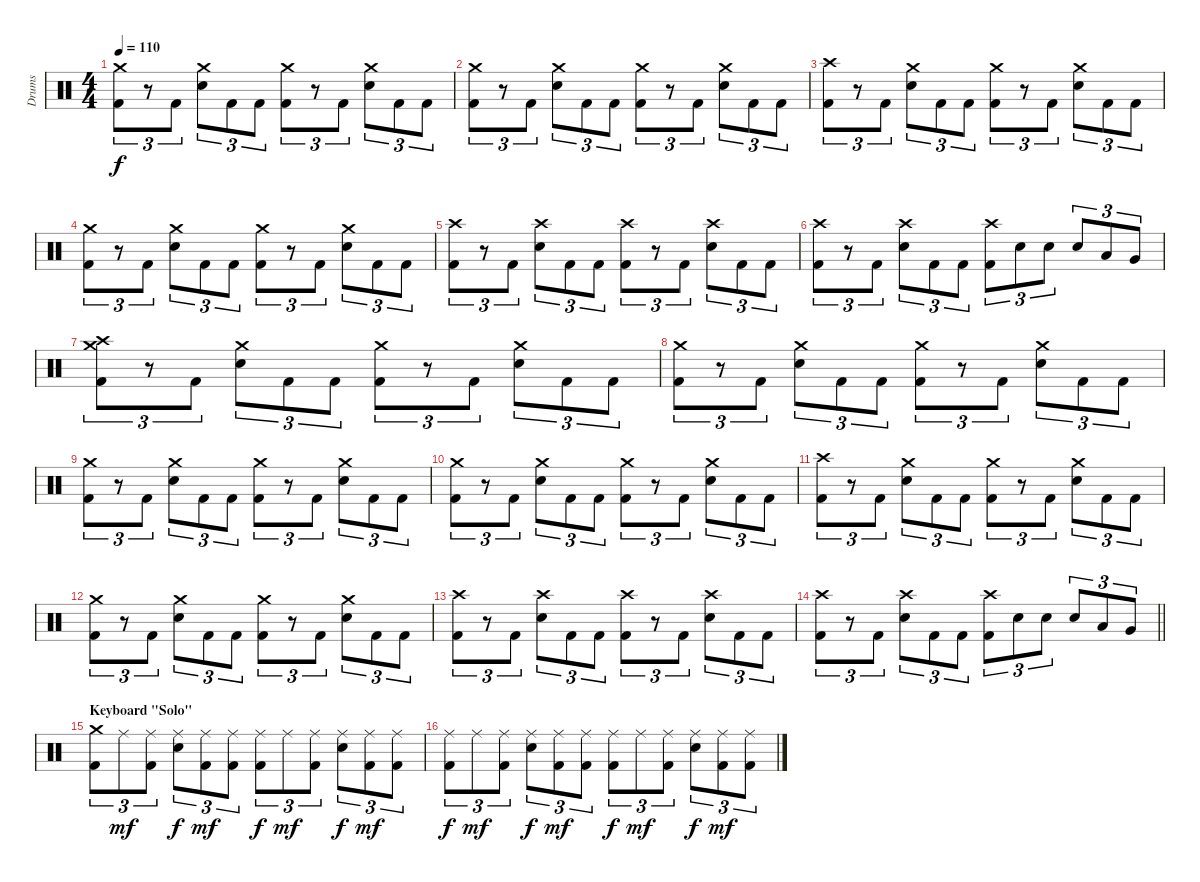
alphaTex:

\track ("Drums" "Drums") {instrument percussion}
\staff {score}
\articulation defaults
\ts (4 4)
\tempo 110
\clef neutral
\ks c
("Crash medium (hit)" "Kick (hit) 2").8{tu (3 2) dy f} r.8{tu (3 2)} "Kick (hit) 2".8{tu (3 2)} ("Crash medium (hit)" "Electric Snare (hit)").8{tu (3 2)} "Kick (hit) 2".8{tu (3 2)} "Kick (hit) 2".8{tu (3 2)} ("Crash medium (hit)" "Kick (hit) 2").8{tu (3 2)} r.8{tu (3 2)} "Kick (hit) 2".8{tu (3 2)} ("Crash medium (hit)" "Electric Snare (hit)").8{tu (3 2)} "Kick (hit) 2".8{tu (3 2)} "Kick (hit) 2".8{tu (3 2)} |
("Crash medium (hit)" "Kick (hit) 2").8{tu (3 2)} r.8{tu (3 2)} "Kick (hit) 2".8{tu (3 2)} ("Crash medium (hit)" "Electric Snare (hit)").8{tu (3 2)} "Kick (hit) 2".8{tu (3 2)} "Kick (hit) 2".8{tu (3 2)} ("Crash medium (hit)" "Kick (hit) 2").8{tu (3 2)} r.8{tu (3 2)} "Kick (hit) 2".8{tu (3 2)} ("Crash medium (hit)" "Electric Snare (hit)").8{tu (3 2)} "Kick (hit) 2".8{tu (3 2)} "Kick (hit) 2".8{tu (3 2)} |
("Crash high (hit)" "Kick (hit) 2").8{tu (3 2)} r.8{tu (3 2)} "Kick (hit) 2".8{tu (3 2)} ("Crash medium (hit)" "Electric Snare (hit)").8{tu (3 2)} "Kick (hit) 2".8{tu (3 2)} "Kick (hit) 2".8{tu (3 2)} ("Crash medium (hit)" "Kick (hit) 2").8{tu (3 2)} r.8{tu (3 2)} "Kick (hit) 2".8{tu (3 2)} ("Crash medium (hit)" "Electric Snare (hit)").8{tu (3 2)} "Kick (hit) 2".8{tu (3 2)} "Kick (hit) 2".8{tu (3 2)} |
("Crash medium (hit)" "Kick (hit) 2").8{tu (3 2)} r.8{tu (3 2)} "Kick (hit) 2".8{tu (3 2)} ("Crash medium (hit)" "Electric Snare (hit)").8{tu (3 2)} "Kick (hit) 2".8{tu (3 2)} "Kick (hit) 2".8{tu (3 2)} ("Crash medium (hit)" "Kick (hit) 2").8{tu (3 2)} r.8{tu (3 2)} "Kick (hit) 2".8{tu (3 2)} ("Crash medium (hit)" "Electric Snare (hit)").8{tu (3 2)} "Kick (hit) 2".8{tu (3 2)} "Kick (hit) 2".8{tu (3 2)} |
("Crash high (hit)" "Kick (hit) 2").8{tu (3 2)} r.8{tu (3 2)} "Kick (hit) 2".8{tu (3 2)} ("Crash high (hit)" "Electric Snare (hit)").8{tu (3 2)} "Kick (hit) 2".8{tu (3 2)} "Kick (hit) 2".8{tu (3 2)} ("Crash high (hit)" "Kick (hit) 2").8{tu (3 2)} r.8{tu (3 2)} "Kick (hit) 2".8{tu (3 2)} ("Crash high (hit)" "Electric Snare (hit)").8{tu (3 2)} "Kick (hit) 2".8{tu (3 2)} "Kick (hit) 2".8{tu (3 2)} |
("Crash high (hit)" "Kick (hit) 2").8{tu (3 2)} r.8{tu (3 2)} "Kick (hit) 2".8{tu (3 2)} ("Crash high (hit)" "Electric Snare (hit)").8{tu (3 2)} "Kick (hit) 2".8{tu (3 2)} "Kick (hit) 2".8{tu (3 2)} ("Crash high (hit)" "Kick (hit) 2").8{tu (3 2)} "Electric Snare (hit)".8{tu (3 2)} "Electric Snare (hit)".8{tu (3 2)} "Electric Snare (hit)".8{tu (3 2)} "Low Tom (hit)".8{tu (3 2)} "Very Low Tom (hit)".8{tu (3 2)} |
("Crash medium (hit)" "Crash high (hit)" "Kick (hit) 2").8{tu (3 2)} r.8{tu (3 2)} "Kick (hit) 2".8{tu (3 2)} ("Crash medium (hit)" "Electric Snare (hit)").8{tu (3 2)} "Kick (hit) 2".8{tu (3 2)} "Kick (hit) 2".8{tu (3 2)} ("Crash medium (hit)" "Kick (hit) 2").8{tu (3 2)} r.8{tu (3 2)} "Kick (hit) 2".8{tu (3 2)} ("Crash medium (hit)" "Electric Snare (hit)").8{tu (3 2)} "Kick (hit) 2".8{tu (3 2)} "Kick (hit) 2".8{tu (3 2)} |
("Crash medium (hit)" "Kick (hit) 2").8{tu (3 2)} r.8{tu (3 2)} "Kick (hit) 2".8{tu (3 2)} ("Crash medium (hit)" "Electric Snare (hit)").8{tu (3 2)} "Kick (hit) 2".8{tu (3 2)} "Kick (hit) 2".8{tu (3 2)} ("Crash medium (hit)" "Kick (hit) 2").8{tu (3 2)} r.8{tu (3 2)} "Kick (hit) 2".8{tu (3 2)} ("Crash medium (hit)" "Electric Snare (hit)").8{tu (3 2)} "Kick (hit) 2".8{tu (3 2)} "Kick (hit) 2".8{tu (3 2)} |
("Crash medium (hit)" "Kick (hit) 2").8{tu (3 2)} r.8{tu (3 2)} "Kick (hit) 2".8{tu (3 2)} ("Crash medium (hit)" "Electric Snare (hit)").8{tu (3 2)} "Kick (hit) 2".8{tu (3 2)} "Kick (hit) 2".8{tu (3 2)} ("Crash medium (hit)" "Kick (hit) 2").8{tu (3 2)} r.8{tu (3 2)} "Kick (hit) 2".8{tu (3 2)} ("Crash medium (hit)" "Electric Snare (hit)").8{tu (3 2)} "Kick (hit) 2".8{tu (3 2)} "Kick (hit) 2".8{tu (3 2)} |
("Crash medium (hit)" "Kick (hit) 2").8{tu (3 2)} r.8{tu (3 2)} "Kick (hit) 2".8{tu (3 2)} ("Crash medium (hit)" "Electric Snare (hit)").8{tu (3 2)} "Kick (hit) 2".8{tu (3 2)} "Kick (hit) 2".8{tu (3 2)} ("Crash medium (hit)" "Kick (hit) 2").8{tu (3 2)} r.8{tu (3 2)} "Kick (hit) 2".8{tu (3 2)} ("Crash medium (hit)" "Electric Snare (hit)").8{tu (3 2)} "Kick (hit) 2".8{tu (3 2)} "Kick (hit) 2".8{tu (3 2)} |
("Crash high (hit)" "Kick (hit) 2").8{tu (3 2)} r.8{tu (3 2)} "Kick (hit) 2".8{tu (3 2)} ("Crash medium (hit)" "Electric Snare (hit)").8{tu (3 2)} "Kick (hit) 2".8{tu (3 2)} "Kick (hit) 2".8{tu (3 2)} ("Crash medium (hit)" "Kick (hit) 2").8{tu (3 2)} r.8{tu (3 2)} "Kick (hit) 2".8{tu (3 2)} ("Crash medium (hit)" "Electric Snare (hit)").8{tu (3 2)} "Kick (hit) 2".8{tu (3 2)} "Kick (hit) 2".8{tu (3 2)} |
("Crash medium (hit)" "Kick (hit) 2").8{tu (3 2)} r.8{tu (3 2)} "Kick (hit) 2".8{tu (3 2)} ("Crash medium (hit)" "Electric Snare (hit)").8{tu (3 2)} "Kick (hit) 2".8{tu (3 2)} "Kick (hit) 2".8{tu (3 2)} ("Crash medium (hit)" "Kick (hit) 2").8{tu (3 2)} r.8{tu (3 2)} "Kick (hit) 2".8{tu (3 2)} ("Crash medium (hit)" "Electric Snare (hit)").8{tu (3 2)} "Kick (hit) 2".8{tu (3 2)} "Kick (hit) 2".8{tu (3 2)} |
("Crash high (hit)" "Kick (hit) 2").8{tu (3 2)} r.8{tu (3 2)} "Kick (hit) 2".8{tu (3 2)} ("Crash high (hit)" "Electric Snare (hit)").8{tu (3 2)} "Kick (hit) 2".8{tu (3 2)} "Kick (hit) 2".8{tu (3 2)} ("Crash high (hit)" "Kick (hit) 2").8{tu (3 2)} r.8{tu (3 2)} "Kick (hit) 2".8{tu (3 2)} ("Crash high (hit)" "Electric Snare (hit)").8{tu (3 2)} "Kick (hit) 2".8{tu (3 2)} "Kick (hit) 2".8{tu (3 2)} |
\barLineRight lightlight
("Crash high (hit)" "Kick (hit) 2").8{tu (3 2)} r.8{tu (3 2)} "Kick (hit) 2".8{tu (3 2)} ("Crash high (hit)" "Electric Snare (hit)").8{tu (3 2)} "Kick (hit) 2".8{tu (3 2)} "Kick (hit) 2".8{tu (3 2)} ("Crash high (hit)" "Kick (hit) 2").8{tu (3 2)} "Electric Snare (hit)".8{tu (3 2)} "Electric Snare (hit)".8{tu (3 2)} "Electric Snare (hit)".8{tu (3 2)} "Low Tom (hit)".8{tu (3 2)} "Very Low Tom (hit)".8{tu (3 2)} |
\section ("" "Keyboard \"Solo\"")
("Crash medium (hit)" "Kick (hit) 2").8{tu (3 2)} "Ride (middle)".8{tu (3 2) dy mf} ("Ride (middle)" "Kick (hit) 2").8{tu (3 2)} ("Ride (middle)" "Electric Snare (hit)").8{tu (3 2) dy f} ("Ride (middle)" "Kick (hit) 2").8{tu (3 2) dy mf} ("Ride (middle)" "Kick (hit) 2").8{tu (3 2)} ("Ride (middle)" "Kick (hit) 2").8{tu (3 2) dy f} "Ride (middle)".8{tu (3 2) dy mf} ("Ride (middle)" "Kick (hit) 2").8{tu (3 2)} ("Ride (middle)" "Electric Snare (hit)").8{tu (3 2) dy f} ("Ride (middle)" "Kick (hit) 2").8{tu (3 2) dy mf} ("Ride (middle)" "Kick (hit) 2").8{tu (3 2)} |
("Ride (middle)" "Kick (hit) 2").8{tu (3 2) dy f} "Ride (middle)".8{tu (3 2) dy mf} ("Ride (middle)" "Kick (hit) 2").8{tu (3 2)} ("Ride (middle)" "Electric Snare (hit)").8{tu (3 2) dy f} ("Ride (middle)" "Kick (hit) 2").8{tu (3 2) dy mf} ("Ride (middle)" "Kick (hit) 2").8{tu (3 2)} ("Ride (middle)" "Kick (hit) 2").8{tu (3 2) dy f} "Ride (middle)".8{tu (3 2) dy mf} ("Ride (middle)" "Kick (hit) 2").8{tu (3 2)} ("Ride (middle)" "Electric Snare (hit)").8{tu (3 2) dy f} ("Ride (middle)" "Kick (hit) 2").8{tu (3 2) dy mf} ("Ride (middle)" "Kick (hit) 2").8{tu (3 2)}
